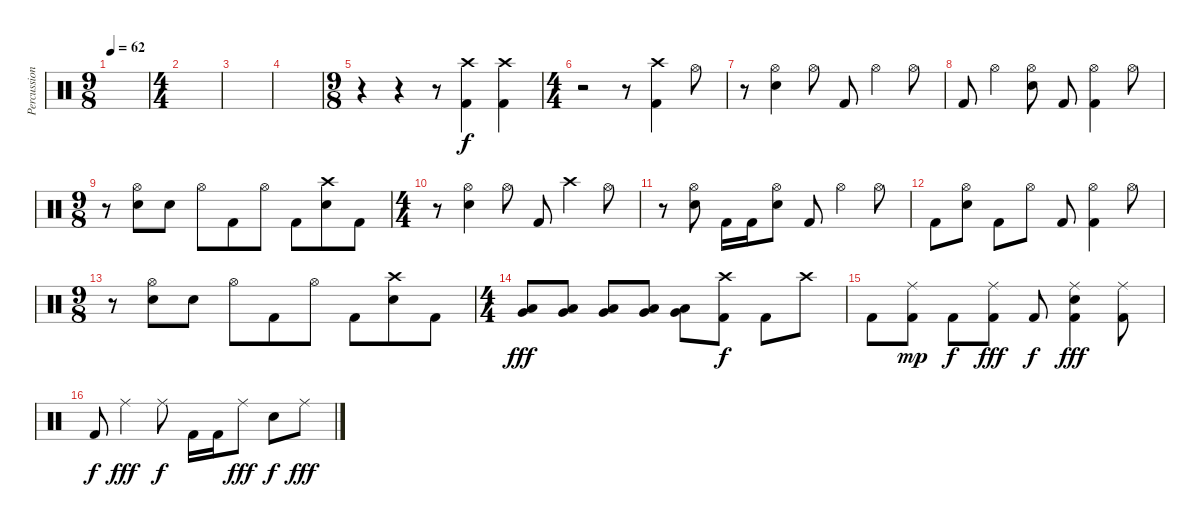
\track ("Percussion" "Percussion") {instrument percussion}
\staff {score}
\articulation defaults
\ts (9 8)
\tempo 62
\clef neutral
\ks c
|
\ts (4 4)
|
|
|
\ts (9 8)
r.4 r.4 r.8 ("Crash high (hit)" "Kick (hit) 2").4 ("Crash high (hit)" "Kick (hit) 2").4 |
\ts (4 4)
r.2 r.8 ("Crash high (hit)" "Kick (hit) 2").4 "Hi-Hat (open)".8 |
r.8 ("Hi-Hat (open)" "Electric Snare (hit)").4 "Hi-Hat (open)".8 "Kick (hit) 2".8 "Hi-Hat (open)".4 "Hi-Hat (open)".8 |
"Kick (hit) 2".8 "Hi-Hat (open)".4 ("Hi-Hat (open)" "Electric Snare (hit)").8 "Kick (hit) 2".8 ("Hi-Hat (open)" "Kick (hit) 2").4 "Hi-Hat (open)".8 |
\ts (9 8)
r.8 ("Hi-Hat (open)" "Electric Snare (hit)").8 "Electric Snare (hit)".8 "Hi-Hat (open)".8 "Kick (hit) 2".8 "Hi-Hat (open)".8 "Kick (hit) 2".8 ("Crash high (hit)" "Electric Snare (hit)").8 "Kick (hit) 2".8 |
\ts (4 4)
r.8 ("Hi-Hat (open)" "Electric Snare (hit)").4 "Hi-Hat (open)".8 "Kick (hit) 2".8 "Crash high (hit)".4 "Hi-Hat (open)".8 |
r.8 ("Hi-Hat (open)" "Electric Snare (hit)").8 "Kick (hit) 2".16 "Kick (hit) 2".16 ("Hi-Hat (open)" "Electric Snare (hit)").8 "Kick (hit) 2".8 "Hi-Hat (open)".4 "Hi-Hat (open)".8 |
"Kick (hit) 2".8 ("Hi-Hat (open)" "Electric Snare (hit)").8 "Kick (hit) 2".8 "Hi-Hat (open)".8 "Kick (hit) 2".8 ("Hi-Hat (open)" "Kick (hit) 2").4 "Hi-Hat (open)".8 |
\ts (9 8)
r.8 ("Hi-Hat (open)" "Electric Snare (hit)").8 "Electric Snare (hit)".8 "Hi-Hat (open)".8 "Kick (hit) 2".8 "Hi-Hat (open)".8 "Kick (hit) 2".8 ("Crash high (hit)" "Electric Snare (hit)").8 "Kick (hit) 2".8 |
\ts (4 4)
("Very Low Tom (hit)" "Low Tom (hit)").8{dy fff} ("Very Low Tom (hit)" "Low Tom (hit)").8 ("Very Low Tom (hit)" "Low Tom (hit)").8 ("Very Low Tom (hit)" "Low Tom (hit)").8 ("Very Low Tom (hit)" "Low Tom (hit)").8 ("Crash high (hit)" "Kick (hit) 2").8{dy f} "Kick (hit) 2".8 "Crash high (hit)".8 |
"Kick (hit) 2".8 ("Ride (middle)" "Kick (hit) 2").8{dy mp} "Kick (hit) 2".8{dy f} ("Ride (middle)" "Kick (hit) 2").8{dy fff} "Kick (hit) 2".8{dy f} ("Ride (middle)" "Electric Snare (hit)" "Kick (hit) 2").4{dy fff} ("Ride (middle)" "Kick (hit) 2").8 |
"Kick (hit) 2".8{dy f} "Ride (middle)".4{dy fff} "Ride (middle)".8{dy f} "Kick (hit) 2".16 "Kick (hit) 2".16 "Ride (middle)".8{dy fff} "Electric Snare (hit)".8{dy f} "Ride (middle)".8{dy fff}
